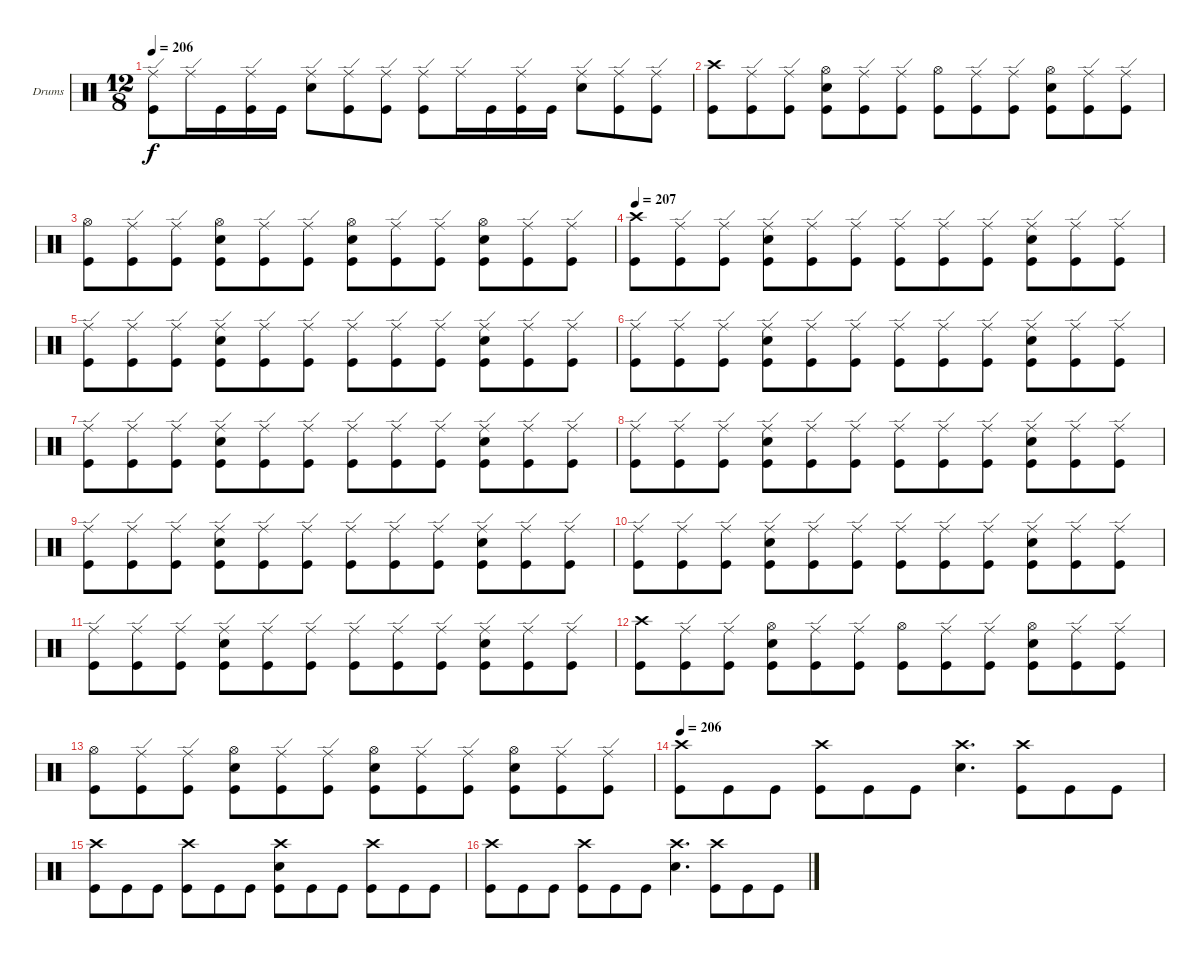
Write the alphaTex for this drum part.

\bracketExtendMode groupsimilarinstruments
\firstSystemTrackNameOrientation horizontal
\otherSystemsTrackNameOrientation horizontal
\track ("Drumkit" "Drums") {instrument percussion}
\staff {score}
\articulation defaults
\ts (12 8)
\tempo 206
\clef neutral
\ks c
("Ride (edge)" "Kick (hit)").8{dy f} "Ride (edge)".16 "Kick (hit)".16 ("Ride (edge)" "Kick (hit)").16 "Kick (hit)".16 ("Ride (edge)" "Snare (hit) 2").8 ("Ride (edge)" "Kick (hit)").8 ("Ride (edge)" "Kick (hit)").8 ("Ride (edge)" "Kick (hit)").8 "Ride (edge)".16 "Kick (hit)".16 ("Ride (edge)" "Kick (hit)").16 "Kick (hit)".16 ("Ride (edge)" "Snare (hit) 2").8 ("Ride (edge)" "Kick (hit)").8 ("Ride (edge)" "Kick (hit)").8 |
("Crash high (hit)" "Kick (hit)").8 ("Ride (edge)" "Kick (hit)").8 ("Ride (edge)" "Kick (hit)").8 ("Hi-Hat (open)" "Kick (hit)" "Snare (hit) 2").8 ("Ride (edge)" "Kick (hit)").8 ("Ride (edge)" "Kick (hit)").8 ("Hi-Hat (open)" "Kick (hit)").8 ("Ride (edge)" "Kick (hit)").8 ("Ride (edge)" "Kick (hit)").8 ("Hi-Hat (open)" "Kick (hit)" "Snare (hit) 2").8 ("Ride (edge)" "Kick (hit)").8 ("Ride (edge)" "Kick (hit)").8 |
("Hi-Hat (open)" "Kick (hit)").8 ("Ride (edge)" "Kick (hit)").8 ("Ride (edge)" "Kick (hit)").8 ("Hi-Hat (open)" "Kick (hit)" "Snare (hit) 2").8 ("Ride (edge)" "Kick (hit)").8 ("Ride (edge)" "Kick (hit)").8 ("Hi-Hat (open)" "Kick (hit)" "Snare (hit) 2").8 ("Ride (edge)" "Kick (hit)").8 ("Ride (edge)" "Kick (hit)").8 ("Hi-Hat (open)" "Kick (hit)" "Snare (hit) 2").8 ("Ride (edge)" "Kick (hit)").8 ("Ride (edge)" "Kick (hit)").8 |
\tempo 207
("Crash high (hit)" "Kick (hit)").8 ("Ride (edge)" "Kick (hit)").8 ("Ride (edge)" "Kick (hit)").8 ("Ride (edge)" "Kick (hit)" "Snare (hit) 2").8 ("Ride (edge)" "Kick (hit)").8 ("Ride (edge)" "Kick (hit)").8 ("Ride (edge)" "Kick (hit)").8 ("Ride (edge)" "Kick (hit)").8 ("Ride (edge)" "Kick (hit)").8 ("Ride (edge)" "Kick (hit)" "Snare (hit) 2").8 ("Ride (edge)" "Kick (hit)").8 ("Ride (edge)" "Kick (hit)").8 |
("Ride (edge)" "Kick (hit)").8 ("Ride (edge)" "Kick (hit)").8 ("Ride (edge)" "Kick (hit)").8 ("Ride (edge)" "Kick (hit)" "Snare (hit) 2").8 ("Ride (edge)" "Kick (hit)").8 ("Ride (edge)" "Kick (hit)").8 ("Ride (edge)" "Kick (hit)").8 ("Ride (edge)" "Kick (hit)").8 ("Ride (edge)" "Kick (hit)").8 ("Ride (edge)" "Kick (hit)" "Snare (hit) 2").8 ("Ride (edge)" "Kick (hit)").8 ("Ride (edge)" "Kick (hit)").8 |
("Ride (edge)" "Kick (hit)").8 ("Ride (edge)" "Kick (hit)").8 ("Ride (edge)" "Kick (hit)").8 ("Ride (edge)" "Kick (hit)" "Snare (hit) 2").8 ("Ride (edge)" "Kick (hit)").8 ("Ride (edge)" "Kick (hit)").8 ("Ride (edge)" "Kick (hit)").8 ("Ride (edge)" "Kick (hit)").8 ("Ride (edge)" "Kick (hit)").8 ("Ride (edge)" "Kick (hit)" "Snare (hit) 2").8 ("Ride (edge)" "Kick (hit)").8 ("Ride (edge)" "Kick (hit)").8 |
("Ride (edge)" "Kick (hit)").8 ("Ride (edge)" "Kick (hit)").8 ("Ride (edge)" "Kick (hit)").8 ("Ride (edge)" "Kick (hit)" "Snare (hit) 2").8 ("Ride (edge)" "Kick (hit)").8 ("Ride (edge)" "Kick (hit)").8 ("Ride (edge)" "Kick (hit)").8 ("Ride (edge)" "Kick (hit)").8 ("Ride (edge)" "Kick (hit)").8 ("Ride (edge)" "Kick (hit)" "Snare (hit) 2").8 ("Ride (edge)" "Kick (hit)").8 ("Ride (edge)" "Kick (hit)").8 |
("Ride (edge)" "Kick (hit)").8 ("Ride (edge)" "Kick (hit)").8 ("Ride (edge)" "Kick (hit)").8 ("Ride (edge)" "Kick (hit)" "Snare (hit) 2").8 ("Ride (edge)" "Kick (hit)").8 ("Ride (edge)" "Kick (hit)").8 ("Ride (edge)" "Kick (hit)").8 ("Ride (edge)" "Kick (hit)").8 ("Ride (edge)" "Kick (hit)").8 ("Ride (edge)" "Kick (hit)" "Snare (hit) 2").8 ("Ride (edge)" "Kick (hit)").8 ("Ride (edge)" "Kick (hit)").8 |
("Ride (edge)" "Kick (hit)").8 ("Ride (edge)" "Kick (hit)").8 ("Ride (edge)" "Kick (hit)").8 ("Ride (edge)" "Kick (hit)" "Snare (hit) 2").8 ("Ride (edge)" "Kick (hit)").8 ("Ride (edge)" "Kick (hit)").8 ("Ride (edge)" "Kick (hit)").8 ("Ride (edge)" "Kick (hit)").8 ("Ride (edge)" "Kick (hit)").8 ("Ride (edge)" "Kick (hit)" "Snare (hit) 2").8 ("Ride (edge)" "Kick (hit)").8 ("Ride (edge)" "Kick (hit)").8 |
("Ride (edge)" "Kick (hit)").8 ("Ride (edge)" "Kick (hit)").8 ("Ride (edge)" "Kick (hit)").8 ("Ride (edge)" "Kick (hit)" "Snare (hit) 2").8 ("Ride (edge)" "Kick (hit)").8 ("Ride (edge)" "Kick (hit)").8 ("Ride (edge)" "Kick (hit)").8 ("Ride (edge)" "Kick (hit)").8 ("Ride (edge)" "Kick (hit)").8 ("Ride (edge)" "Kick (hit)" "Snare (hit) 2").8 ("Ride (edge)" "Kick (hit)").8 ("Ride (edge)" "Kick (hit)").8 |
("Ride (edge)" "Kick (hit)").8 ("Ride (edge)" "Kick (hit)").8 ("Ride (edge)" "Kick (hit)").8 ("Ride (edge)" "Kick (hit)" "Snare (hit) 2").8 ("Ride (edge)" "Kick (hit)").8 ("Ride (edge)" "Kick (hit)").8 ("Ride (edge)" "Kick (hit)").8 ("Ride (edge)" "Kick (hit)").8 ("Ride (edge)" "Kick (hit)").8 ("Ride (edge)" "Kick (hit)" "Snare (hit) 2").8 ("Ride (edge)" "Kick (hit)").8 ("Ride (edge)" "Kick (hit)").8 |
("Crash high (hit)" "Kick (hit)").8 ("Ride (edge)" "Kick (hit)").8 ("Ride (edge)" "Kick (hit)").8 ("Hi-Hat (open)" "Kick (hit)" "Snare (hit) 2").8 ("Ride (edge)" "Kick (hit)").8 ("Ride (edge)" "Kick (hit)").8 ("Hi-Hat (open)" "Kick (hit)").8 ("Ride (edge)" "Kick (hit)").8 ("Ride (edge)" "Kick (hit)").8 ("Hi-Hat (open)" "Kick (hit)" "Snare (hit) 2").8 ("Ride (edge)" "Kick (hit)").8 ("Ride (edge)" "Kick (hit)").8 |
("Hi-Hat (open)" "Kick (hit)").8 ("Ride (edge)" "Kick (hit)").8 ("Ride (edge)" "Kick (hit)").8 ("Hi-Hat (open)" "Kick (hit)" "Snare (hit) 2").8 ("Ride (edge)" "Kick (hit)").8 ("Ride (edge)" "Kick (hit)").8 ("Hi-Hat (open)" "Kick (hit)" "Snare (hit) 2").8 ("Ride (edge)" "Kick (hit)").8 ("Ride (edge)" "Kick (hit)").8 ("Hi-Hat (open)" "Kick (hit)" "Snare (hit) 2").8 ("Ride (edge)" "Kick (hit)").8 ("Ride (edge)" "Kick (hit)").8 |
\tempo 206
("Crash high (hit)" "Kick (hit)").8 "Kick (hit)".8 "Kick (hit)".8 ("Crash high (hit)" "Kick (hit)").8 "Kick (hit)".8 "Kick (hit)".8 ("Crash high (hit)" "Snare (hit) 2").4{d} ("Crash high (hit)" "Kick (hit)").8 "Kick (hit)".8 "Kick (hit)".8 |
("Crash high (hit)" "Kick (hit)").8 "Kick (hit)".8 "Kick (hit)".8 ("Crash high (hit)" "Kick (hit)").8 "Kick (hit)".8 "Kick (hit)".8 ("Crash high (hit)" "Kick (hit)" "Snare (hit) 2").8 "Kick (hit)".8 "Kick (hit)".8 ("Crash high (hit)" "Kick (hit)").8 "Kick (hit)".8 "Kick (hit)".8 |
("Crash high (hit)" "Kick (hit)").8 "Kick (hit)".8 "Kick (hit)".8 ("Crash high (hit)" "Kick (hit)").8 "Kick (hit)".8 "Kick (hit)".8 ("Crash high (hit)" "Snare (hit) 2").4{d} ("Crash high (hit)" "Kick (hit)").8 "Kick (hit)".8 "Kick (hit)".8
